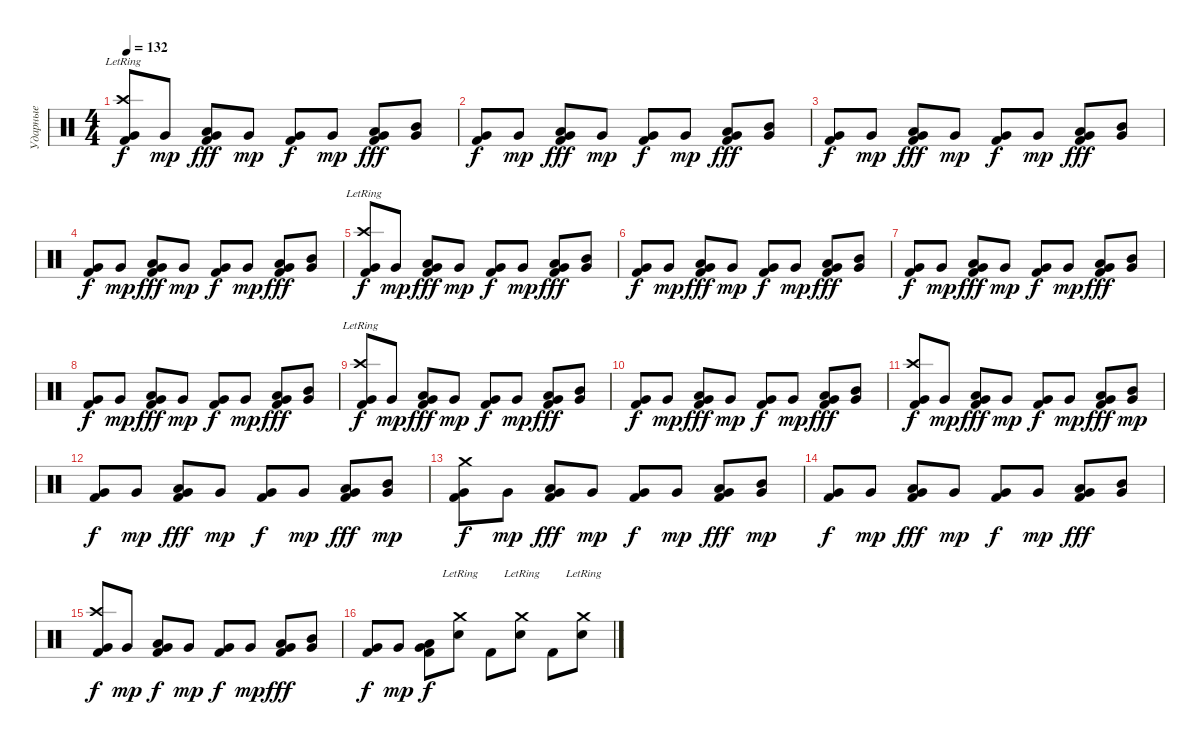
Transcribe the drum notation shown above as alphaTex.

\track ("Ударные" "Ударные") {instrument percussion}
\staff {score}
\articulation defaults
\ts (4 4)
\tempo 132
\clef neutral
\ks c
("Very Low Tom (hit)" "Crash high (hit)"{lr} "Kick (hit) 2").8{dy f} "Very Low Tom (hit)".8{dy mp} ("Very Low Tom (hit)" "Low Tom (hit)" "Kick (hit) 2").8{dy fff} "Very Low Tom (hit)".8{dy mp} ("Very Low Tom (hit)" "Kick (hit) 2").8{dy f} "Very Low Tom (hit)".8{dy mp} ("Very Low Tom (hit)" "Low Tom (hit)" "Kick (hit) 2").8{dy fff} ("Very Low Tom (hit)" "Mid Tom (hit)").8 |
("Very Low Tom (hit)" "Kick (hit) 2").8{dy f} "Very Low Tom (hit)".8{dy mp} ("Very Low Tom (hit)" "Low Tom (hit)" "Kick (hit) 2").8{dy fff} "Very Low Tom (hit)".8{dy mp} ("Very Low Tom (hit)" "Kick (hit) 2").8{dy f} "Very Low Tom (hit)".8{dy mp} ("Very Low Tom (hit)" "Low Tom (hit)" "Kick (hit) 2").8{dy fff} ("Very Low Tom (hit)" "Mid Tom (hit)").8 |
("Very Low Tom (hit)" "Kick (hit) 2").8{dy f} "Very Low Tom (hit)".8{dy mp} ("Very Low Tom (hit)" "Low Tom (hit)" "Kick (hit) 2").8{dy fff} "Very Low Tom (hit)".8{dy mp} ("Very Low Tom (hit)" "Kick (hit) 2").8{dy f} "Very Low Tom (hit)".8{dy mp} ("Very Low Tom (hit)" "Low Tom (hit)" "Kick (hit) 2").8{dy fff} ("Very Low Tom (hit)" "Mid Tom (hit)").8 |
("Very Low Tom (hit)" "Kick (hit) 2").8{dy f} "Very Low Tom (hit)".8{dy mp} ("Very Low Tom (hit)" "Low Tom (hit)" "Kick (hit) 2").8{dy fff} "Very Low Tom (hit)".8{dy mp} ("Very Low Tom (hit)" "Kick (hit) 2").8{dy f} "Very Low Tom (hit)".8{dy mp} ("Very Low Tom (hit)" "Low Tom (hit)" "Kick (hit) 2").8{dy fff} ("Very Low Tom (hit)" "Mid Tom (hit)").8 |
("Very Low Tom (hit)" "Crash high (hit)"{lr} "Kick (hit) 2").8{dy f} "Very Low Tom (hit)".8{dy mp} ("Very Low Tom (hit)" "Low Tom (hit)" "Kick (hit) 2").8{dy fff} "Very Low Tom (hit)".8{dy mp} ("Very Low Tom (hit)" "Kick (hit) 2").8{dy f} "Very Low Tom (hit)".8{dy mp} ("Very Low Tom (hit)" "Low Tom (hit)" "Kick (hit) 2").8{dy fff} ("Very Low Tom (hit)" "Mid Tom (hit)").8 |
("Very Low Tom (hit)" "Kick (hit) 2").8{dy f} "Very Low Tom (hit)".8{dy mp} ("Very Low Tom (hit)" "Low Tom (hit)" "Kick (hit) 2").8{dy fff} "Very Low Tom (hit)".8{dy mp} ("Very Low Tom (hit)" "Kick (hit) 2").8{dy f} "Very Low Tom (hit)".8{dy mp} ("Very Low Tom (hit)" "Low Tom (hit)" "Kick (hit) 2").8{dy fff} ("Very Low Tom (hit)" "Mid Tom (hit)").8 |
("Very Low Tom (hit)" "Kick (hit) 2").8{dy f} "Very Low Tom (hit)".8{dy mp} ("Very Low Tom (hit)" "Low Tom (hit)" "Kick (hit) 2").8{dy fff} "Very Low Tom (hit)".8{dy mp} ("Very Low Tom (hit)" "Kick (hit) 2").8{dy f} "Very Low Tom (hit)".8{dy mp} ("Very Low Tom (hit)" "Low Tom (hit)" "Kick (hit) 2").8{dy fff} ("Very Low Tom (hit)" "Mid Tom (hit)").8 |
("Very Low Tom (hit)" "Kick (hit) 2").8{dy f} "Very Low Tom (hit)".8{dy mp} ("Very Low Tom (hit)" "Low Tom (hit)" "Kick (hit) 2").8{dy fff} "Very Low Tom (hit)".8{dy mp} ("Very Low Tom (hit)" "Kick (hit) 2").8{dy f} "Very Low Tom (hit)".8{dy mp} ("Very Low Tom (hit)" "Low Tom (hit)" "Kick (hit) 2").8{dy fff} ("Very Low Tom (hit)" "Mid Tom (hit)").8 |
("Very Low Tom (hit)" "Crash high (hit)"{lr} "Kick (hit) 2").8{dy f} "Very Low Tom (hit)".8{dy mp} ("Very Low Tom (hit)" "Low Tom (hit)" "Kick (hit) 2").8{dy fff} "Very Low Tom (hit)".8{dy mp} ("Very Low Tom (hit)" "Kick (hit) 2").8{dy f} "Very Low Tom (hit)".8{dy mp} ("Very Low Tom (hit)" "Low Tom (hit)" "Kick (hit) 2").8{dy fff} ("Very Low Tom (hit)" "Mid Tom (hit)").8 |
("Very Low Tom (hit)" "Kick (hit) 2").8{dy f} "Very Low Tom (hit)".8{dy mp} ("Very Low Tom (hit)" "Low Tom (hit)" "Kick (hit) 2").8{dy fff} "Very Low Tom (hit)".8{dy mp} ("Very Low Tom (hit)" "Kick (hit) 2").8{dy f} "Very Low Tom (hit)".8{dy mp} ("Very Low Tom (hit)" "Low Tom (hit)" "Kick (hit) 2").8{dy fff} ("Very Low Tom (hit)" "Mid Tom (hit)").8 |
("Very Low Tom (hit)" "Crash high (hit)" "Kick (hit) 2").8{dy f} "Very Low Tom (hit)".8{dy mp} ("Very Low Tom (hit)" "Low Tom (hit)" "Kick (hit) 2").8{dy fff} "Very Low Tom (hit)".8{dy mp} ("Very Low Tom (hit)" "Kick (hit) 2").8{dy f} "Very Low Tom (hit)".8{dy mp} ("Very Low Tom (hit)" "Low Tom (hit)" "Kick (hit) 2").8{dy fff} ("Very Low Tom (hit)" "Mid Tom (hit)").8{dy mp} |
("Very Low Tom (hit)" "Kick (hit) 2").8{dy f} "Very Low Tom (hit)".8{dy mp} ("Very Low Tom (hit)" "Low Tom (hit)" "Kick (hit) 2").8{dy fff} "Very Low Tom (hit)".8{dy mp} ("Very Low Tom (hit)" "Kick (hit) 2").8{dy f} "Very Low Tom (hit)".8{dy mp} ("Very Low Tom (hit)" "Low Tom (hit)" "Kick (hit) 2").8{dy fff} ("Very Low Tom (hit)" "Mid Tom (hit)").8{dy mp} |
("Very Low Tom (hit)" "Crash medium (hit)" "Kick (hit) 2").8{dy f} "Very Low Tom (hit)".8{dy mp} ("Very Low Tom (hit)" "Low Tom (hit)" "Kick (hit) 2").8{dy fff} "Very Low Tom (hit)".8{dy mp} ("Very Low Tom (hit)" "Kick (hit) 2").8{dy f} "Very Low Tom (hit)".8{dy mp} ("Very Low Tom (hit)" "Low Tom (hit)" "Kick (hit) 2").8{dy fff} ("Very Low Tom (hit)" "Mid Tom (hit)").8{dy mp} |
("Very Low Tom (hit)" "Kick (hit) 2").8{dy f} "Very Low Tom (hit)".8{dy mp} ("Very Low Tom (hit)" "Low Tom (hit)" "Kick (hit) 2").8{dy fff} "Very Low Tom (hit)".8{dy mp} ("Very Low Tom (hit)" "Kick (hit) 2").8{dy f} "Very Low Tom (hit)".8{dy mp} ("Very Low Tom (hit)" "Low Tom (hit)" "Kick (hit) 2").8{dy fff} ("Very Low Tom (hit)" "Mid Tom (hit)").8 |
("Very Low Tom (hit)" "Crash high (hit)" "Kick (hit) 2").8{dy f} "Very Low Tom (hit)".8{dy mp} ("Very Low Tom (hit)" "Low Tom (hit)" "Kick (hit) 2").8{dy f} "Very Low Tom (hit)".8{dy mp} ("Very Low Tom (hit)" "Kick (hit) 2").8{dy f} "Very Low Tom (hit)".8{dy mp} ("Very Low Tom (hit)" "Low Tom (hit)" "Kick (hit) 2").8{dy fff} ("Very Low Tom (hit)" "Mid Tom (hit)").8 |
("Very Low Tom (hit)" "Kick (hit) 2").8{dy f} "Very Low Tom (hit)".8{dy mp} ("Very Low Tom (hit)" "Low Tom (hit)" "Kick (hit) 2").8{dy f} ("Crash medium (hit)"{lr} "Electric Snare (hit)").8 "Kick (hit) 2".8 ("Crash medium (hit)"{lr} "Electric Snare (hit)").8 "Kick (hit) 2".8 ("Crash medium (hit)"{lr} "Electric Snare (hit)").8
